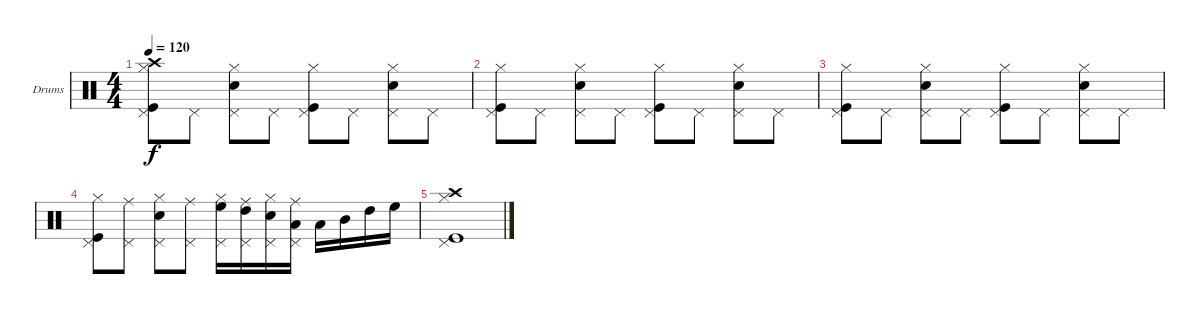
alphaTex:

\defaultSystemsLayout 4
\bracketExtendMode groupsimilarinstruments
\firstSystemTrackNameOrientation horizontal
\otherSystemsTrackNameOrientation horizontal
\track ("Drumkit" "Drums") {instrument percussion}
\staff {score}
\articulation defaults
\ts (4 4)
\tempo 120
\clef neutral
\ks c
("Hi-Hat (closed)" "Crash high (hit)" "Kick (hit)" "Pedal Hi-Hat (hit)").8{dy f} "Pedal Hi-Hat (hit)".8 ("Snare (hit) 2" "Hi-Hat (closed)" "Pedal Hi-Hat (hit)").8 "Pedal Hi-Hat (hit)".8 ("Kick (hit)" "Hi-Hat (closed)" "Pedal Hi-Hat (hit)").8 "Pedal Hi-Hat (hit)".8 ("Snare (hit) 2" "Hi-Hat (closed)" "Pedal Hi-Hat (hit)").8 "Pedal Hi-Hat (hit)".8 |
("Hi-Hat (closed)" "Kick (hit)" "Pedal Hi-Hat (hit)").8 "Pedal Hi-Hat (hit)".8 ("Snare (hit) 2" "Hi-Hat (closed)" "Pedal Hi-Hat (hit)").8 "Pedal Hi-Hat (hit)".8 ("Kick (hit)" "Hi-Hat (closed)" "Pedal Hi-Hat (hit)").8 "Pedal Hi-Hat (hit)".8 ("Snare (hit) 2" "Hi-Hat (closed)" "Pedal Hi-Hat (hit)").8 "Pedal Hi-Hat (hit)".8 |
("Hi-Hat (closed)" "Kick (hit)" "Pedal Hi-Hat (hit)").8 "Pedal Hi-Hat (hit)".8 ("Snare (hit) 2" "Hi-Hat (closed)" "Pedal Hi-Hat (hit)").8 "Pedal Hi-Hat (hit)".8 ("Kick (hit)" "Hi-Hat (closed)" "Pedal Hi-Hat (hit)").8 "Pedal Hi-Hat (hit)".8 ("Snare (hit) 2" "Hi-Hat (closed)" "Pedal Hi-Hat (hit)").8 "Pedal Hi-Hat (hit)".8 |
("Hi-Hat (closed)" "Kick (hit)" "Pedal Hi-Hat (hit)").8 ("Pedal Hi-Hat (hit)" "Ride (middle)").8 ("Snare (hit) 2" "Hi-Hat (closed)" "Pedal Hi-Hat (hit)").8 ("Pedal Hi-Hat (hit)" "Ride (middle)").8 ("Hi-Hat (closed)" "Pedal Hi-Hat (hit)" "High Floor Tom (hit)").16 ("Pedal Hi-Hat (hit)" "Ride (middle)" "High Tom (hit)").16 ("Snare (hit) 2" "Hi-Hat (closed)" "Pedal Hi-Hat (hit)").16 ("Pedal Hi-Hat (hit)" "Ride (middle)" "Low Tom (hit)").16 "Low Tom (hit)".16 "Mid Tom (hit)".16 "High Tom (hit)".16 "High Floor Tom (hit)".16 |
("Hi-Hat (closed)" "Crash high (hit)" "Kick (hit)" "Pedal Hi-Hat (hit)").1
